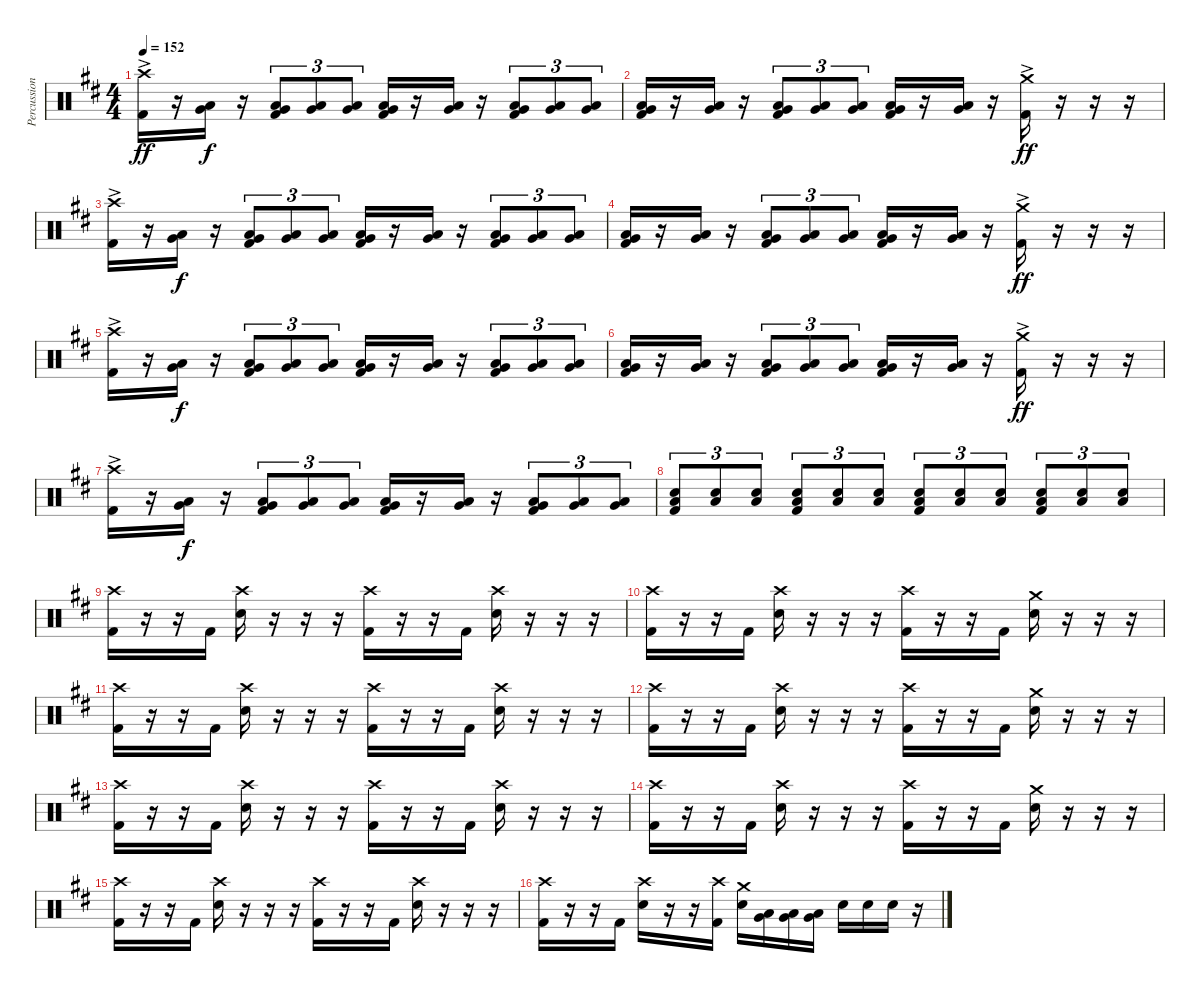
\track ("Percussion" "Percussion") {instrument percussion}
\staff {score}
\articulation defaults
\ts (4 4)
\tempo 152
\clef neutral
\ks d
("Crash high (hit)"{ac} "Kick (hit) 2"{ac}).16{dy ff} r.16 ("Very Low Tom (hit)" "Low Tom (hit)").16{dy f} r.16 ("Very Low Tom (hit)" "Low Tom (hit)" "Kick (hit) 2").8{tu (3 2)} ("Very Low Tom (hit)" "Low Tom (hit)").8{tu (3 2)} ("Very Low Tom (hit)" "Low Tom (hit)").8{tu (3 2)} ("Very Low Tom (hit)" "Low Tom (hit)" "Kick (hit) 2").16 r.16 ("Very Low Tom (hit)" "Low Tom (hit)").16 r.16 ("Very Low Tom (hit)" "Low Tom (hit)" "Kick (hit) 2").8{tu (3 2)} ("Very Low Tom (hit)" "Low Tom (hit)").8{tu (3 2)} ("Very Low Tom (hit)" "Low Tom (hit)").8{tu (3 2)} |
("Very Low Tom (hit)" "Low Tom (hit)" "Kick (hit) 2").16 r.16 ("Very Low Tom (hit)" "Low Tom (hit)").16 r.16 ("Very Low Tom (hit)" "Low Tom (hit)" "Kick (hit) 2").8{tu (3 2)} ("Very Low Tom (hit)" "Low Tom (hit)").8{tu (3 2)} ("Very Low Tom (hit)" "Low Tom (hit)").8{tu (3 2)} ("Very Low Tom (hit)" "Low Tom (hit)" "Kick (hit) 2").16 r.16 ("Very Low Tom (hit)" "Low Tom (hit)").16 r.16 ("Crash medium (hit)"{ac} "Kick (hit) 2"{ac}).16{dy ff} r.16 r.16 r.16 |
("Crash high (hit)"{ac} "Kick (hit) 2"{ac}).16 r.16 ("Very Low Tom (hit)" "Low Tom (hit)").16{dy f} r.16 ("Very Low Tom (hit)" "Low Tom (hit)" "Kick (hit) 2").8{tu (3 2)} ("Very Low Tom (hit)" "Low Tom (hit)").8{tu (3 2)} ("Very Low Tom (hit)" "Low Tom (hit)").8{tu (3 2)} ("Very Low Tom (hit)" "Low Tom (hit)" "Kick (hit) 2").16 r.16 ("Very Low Tom (hit)" "Low Tom (hit)").16 r.16 ("Very Low Tom (hit)" "Low Tom (hit)" "Kick (hit) 2").8{tu (3 2)} ("Very Low Tom (hit)" "Low Tom (hit)").8{tu (3 2)} ("Very Low Tom (hit)" "Low Tom (hit)").8{tu (3 2)} |
("Very Low Tom (hit)" "Low Tom (hit)" "Kick (hit) 2").16 r.16 ("Very Low Tom (hit)" "Low Tom (hit)").16 r.16 ("Very Low Tom (hit)" "Low Tom (hit)" "Kick (hit) 2").8{tu (3 2)} ("Very Low Tom (hit)" "Low Tom (hit)").8{tu (3 2)} ("Very Low Tom (hit)" "Low Tom (hit)").8{tu (3 2)} ("Very Low Tom (hit)" "Low Tom (hit)" "Kick (hit) 2").16 r.16 ("Very Low Tom (hit)" "Low Tom (hit)").16 r.16 ("Crash medium (hit)"{ac} "Kick (hit) 2"{ac}).16{dy ff} r.16 r.16 r.16 |
("Crash high (hit)"{ac} "Kick (hit) 2"{ac}).16 r.16 ("Very Low Tom (hit)" "Low Tom (hit)").16{dy f} r.16 ("Very Low Tom (hit)" "Low Tom (hit)" "Kick (hit) 2").8{tu (3 2)} ("Very Low Tom (hit)" "Low Tom (hit)").8{tu (3 2)} ("Very Low Tom (hit)" "Low Tom (hit)").8{tu (3 2)} ("Very Low Tom (hit)" "Low Tom (hit)" "Kick (hit) 2").16 r.16 ("Very Low Tom (hit)" "Low Tom (hit)").16 r.16 ("Very Low Tom (hit)" "Low Tom (hit)" "Kick (hit) 2").8{tu (3 2)} ("Very Low Tom (hit)" "Low Tom (hit)").8{tu (3 2)} ("Very Low Tom (hit)" "Low Tom (hit)").8{tu (3 2)} |
("Very Low Tom (hit)" "Low Tom (hit)" "Kick (hit) 2").16 r.16 ("Very Low Tom (hit)" "Low Tom (hit)").16 r.16 ("Very Low Tom (hit)" "Low Tom (hit)" "Kick (hit) 2").8{tu (3 2)} ("Very Low Tom (hit)" "Low Tom (hit)").8{tu (3 2)} ("Very Low Tom (hit)" "Low Tom (hit)").8{tu (3 2)} ("Very Low Tom (hit)" "Low Tom (hit)" "Kick (hit) 2").16 r.16 ("Very Low Tom (hit)" "Low Tom (hit)").16 r.16 ("Crash medium (hit)"{ac} "Kick (hit) 2"{ac}).16{dy ff} r.16 r.16 r.16 |
("Crash high (hit)"{ac} "Kick (hit) 2"{ac}).16 r.16 ("Very Low Tom (hit)" "Low Tom (hit)").16{dy f} r.16 ("Very Low Tom (hit)" "Low Tom (hit)" "Kick (hit) 2").8{tu (3 2)} ("Very Low Tom (hit)" "Low Tom (hit)").8{tu (3 2)} ("Very Low Tom (hit)" "Low Tom (hit)").8{tu (3 2)} ("Very Low Tom (hit)" "Low Tom (hit)" "Kick (hit) 2").16 r.16 ("Very Low Tom (hit)" "Low Tom (hit)").16 r.16 ("Very Low Tom (hit)" "Low Tom (hit)" "Kick (hit) 2").8{tu (3 2)} ("Very Low Tom (hit)" "Low Tom (hit)").8{tu (3 2)} ("Very Low Tom (hit)" "Low Tom (hit)").8{tu (3 2)} |
("Low Tom (hit)" "Electric Snare (hit)" "Kick (hit) 2").8{tu (3 2)} ("Low Tom (hit)" "Electric Snare (hit)").8{tu (3 2)} ("Low Tom (hit)" "Electric Snare (hit)").8{tu (3 2)} ("Low Tom (hit)" "Electric Snare (hit)" "Kick (hit) 2").8{tu (3 2)} ("Low Tom (hit)" "Electric Snare (hit)").8{tu (3 2)} ("Low Tom (hit)" "Electric Snare (hit)").8{tu (3 2)} ("Low Tom (hit)" "Electric Snare (hit)" "Kick (hit) 2").8{tu (3 2)} ("Low Tom (hit)" "Electric Snare (hit)").8{tu (3 2)} ("Low Tom (hit)" "Electric Snare (hit)").8{tu (3 2)} ("Low Tom (hit)" "Electric Snare (hit)" "Kick (hit) 2").8{tu (3 2)} ("Low Tom (hit)" "Electric Snare (hit)").8{tu (3 2)} ("Low Tom (hit)" "Electric Snare (hit)").8{tu (3 2)} |
("Crash high (hit)" "Kick (hit) 2").16 r.16 r.16 "Kick (hit) 2".16 ("Crash high (hit)" "Snare (hit) 2").16 r.16 r.16 r.16 ("Crash high (hit)" "Kick (hit) 2").16 r.16 r.16 "Kick (hit) 2".16 ("Crash high (hit)" "Snare (hit) 2").16 r.16 r.16 r.16 |
("Crash high (hit)" "Kick (hit) 2").16 r.16 r.16 "Kick (hit) 2".16 ("Crash high (hit)" "Snare (hit) 2").16 r.16 r.16 r.16 ("Crash high (hit)" "Kick (hit) 2").16 r.16 r.16 "Kick (hit) 2".16 ("Crash medium (hit)" "Snare (hit) 2").16 r.16 r.16 r.16 |
("Crash high (hit)" "Kick (hit) 2").16 r.16 r.16 "Kick (hit) 2".16 ("Crash high (hit)" "Snare (hit) 2").16 r.16 r.16 r.16 ("Crash high (hit)" "Kick (hit) 2").16 r.16 r.16 "Kick (hit) 2".16 ("Crash high (hit)" "Snare (hit) 2").16 r.16 r.16 r.16 |
("Crash high (hit)" "Kick (hit) 2").16 r.16 r.16 "Kick (hit) 2".16 ("Crash high (hit)" "Snare (hit) 2").16 r.16 r.16 r.16 ("Crash high (hit)" "Kick (hit) 2").16 r.16 r.16 "Kick (hit) 2".16 ("Crash medium (hit)" "Snare (hit) 2").16 r.16 r.16 r.16 |
("Crash high (hit)" "Kick (hit) 2").16 r.16 r.16 "Kick (hit) 2".16 ("Crash high (hit)" "Snare (hit) 2").16 r.16 r.16 r.16 ("Crash high (hit)" "Kick (hit) 2").16 r.16 r.16 "Kick (hit) 2".16 ("Crash high (hit)" "Snare (hit) 2").16 r.16 r.16 r.16 |
("Crash high (hit)" "Kick (hit) 2").16 r.16 r.16 "Kick (hit) 2".16 ("Crash high (hit)" "Snare (hit) 2").16 r.16 r.16 r.16 ("Crash high (hit)" "Kick (hit) 2").16 r.16 r.16 "Kick (hit) 2".16 ("Crash medium (hit)" "Snare (hit) 2").16 r.16 r.16 r.16 |
("Crash high (hit)" "Kick (hit) 2").16 r.16 r.16 "Kick (hit) 2".16 ("Crash high (hit)" "Snare (hit) 2").16 r.16 r.16 r.16 ("Crash high (hit)" "Kick (hit) 2").16 r.16 r.16 "Kick (hit) 2".16 ("Crash high (hit)" "Snare (hit) 2").16 r.16 r.16 r.16 |
("Crash high (hit)" "Kick (hit) 2").16 r.16 r.16 "Kick (hit) 2".16 ("Crash high (hit)" "Snare (hit) 2").16 r.16 r.16 ("Crash high (hit)" "Kick (hit) 2").16 ("Crash medium (hit)" "Snare (hit) 2").16 ("Low Tom (hit)" "Very Low Tom (hit)").16 ("Low Tom (hit)" "Very Low Tom (hit)").16 ("Low Tom (hit)" "Very Low Tom (hit)").16 "Snare (hit) 2".16 "Snare (hit) 2".16 "Snare (hit) 2".16 r.16
